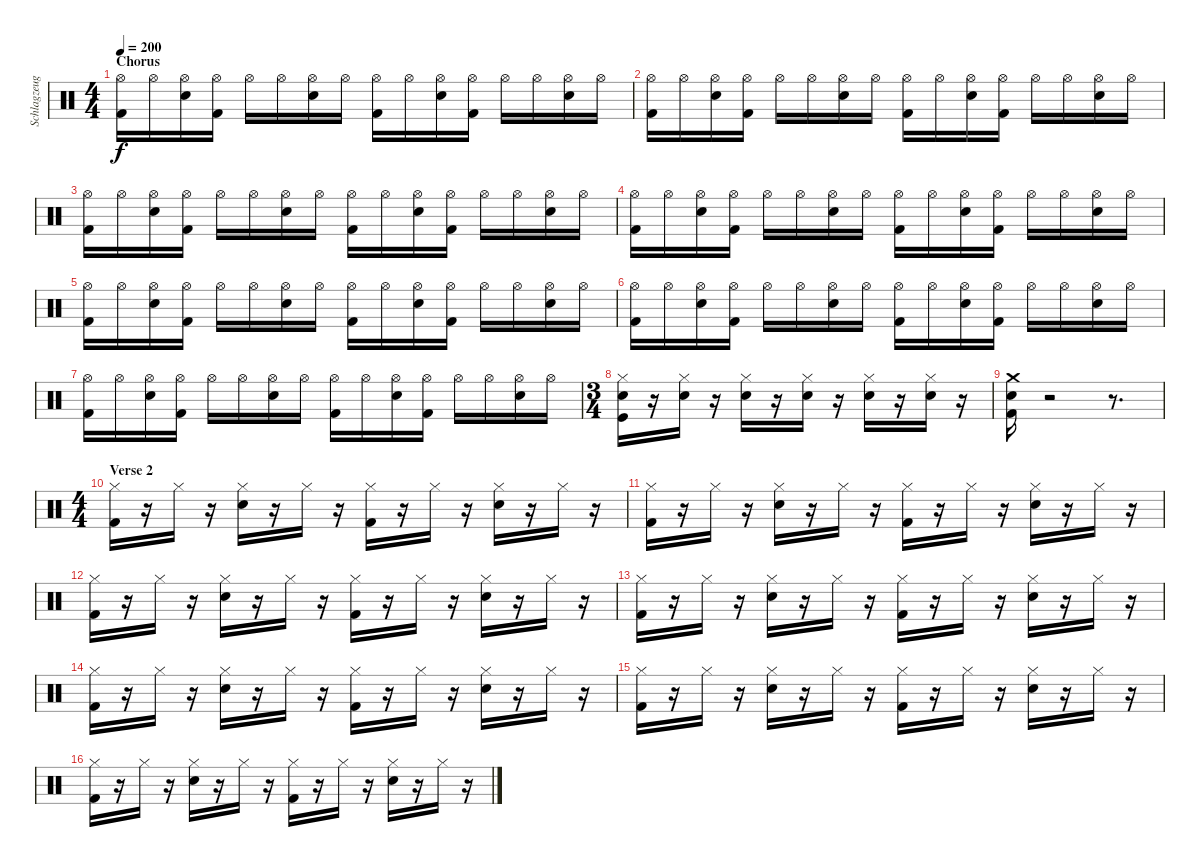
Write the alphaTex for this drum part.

\track ("Schlagzeug - Bela B." "Schlagzeug") {instrument percussion}
\staff {score}
\articulation defaults
\ts (4 4)
\section ("" "Chorus")
\tempo 200
\clef neutral
\ks c
("Kick (hit) 2" "Hi-Hat (open)").16{dy f} "Hi-Hat (open)".16 ("Electric Snare (hit)" "Hi-Hat (open)").16 ("Hi-Hat (open)" "Kick (hit) 2").16 "Hi-Hat (open)".16 "Hi-Hat (open)".16 ("Electric Snare (hit)" "Hi-Hat (open)").16 "Hi-Hat (open)".16 ("Kick (hit) 2" "Hi-Hat (open)").16 "Hi-Hat (open)".16 ("Electric Snare (hit)" "Hi-Hat (open)").16 ("Hi-Hat (open)" "Kick (hit) 2").16 "Hi-Hat (open)".16 "Hi-Hat (open)".16 ("Electric Snare (hit)" "Hi-Hat (open)").16 "Hi-Hat (open)".16 |
("Kick (hit) 2" "Hi-Hat (open)").16 "Hi-Hat (open)".16 ("Electric Snare (hit)" "Hi-Hat (open)").16 ("Hi-Hat (open)" "Kick (hit) 2").16 "Hi-Hat (open)".16 "Hi-Hat (open)".16 ("Electric Snare (hit)" "Hi-Hat (open)").16 "Hi-Hat (open)".16 ("Kick (hit) 2" "Hi-Hat (open)").16 "Hi-Hat (open)".16 ("Electric Snare (hit)" "Hi-Hat (open)").16 ("Hi-Hat (open)" "Kick (hit) 2").16 "Hi-Hat (open)".16 "Hi-Hat (open)".16 ("Electric Snare (hit)" "Hi-Hat (open)").16 "Hi-Hat (open)".16 |
("Kick (hit) 2" "Hi-Hat (open)").16 "Hi-Hat (open)".16 ("Electric Snare (hit)" "Hi-Hat (open)").16 ("Hi-Hat (open)" "Kick (hit) 2").16 "Hi-Hat (open)".16 "Hi-Hat (open)".16 ("Electric Snare (hit)" "Hi-Hat (open)").16 "Hi-Hat (open)".16 ("Kick (hit) 2" "Hi-Hat (open)").16 "Hi-Hat (open)".16 ("Electric Snare (hit)" "Hi-Hat (open)").16 ("Hi-Hat (open)" "Kick (hit) 2").16 "Hi-Hat (open)".16 "Hi-Hat (open)".16 ("Electric Snare (hit)" "Hi-Hat (open)").16 "Hi-Hat (open)".16 |
("Kick (hit) 2" "Hi-Hat (open)").16 "Hi-Hat (open)".16 ("Electric Snare (hit)" "Hi-Hat (open)").16 ("Hi-Hat (open)" "Kick (hit) 2").16 "Hi-Hat (open)".16 "Hi-Hat (open)".16 ("Electric Snare (hit)" "Hi-Hat (open)").16 "Hi-Hat (open)".16 ("Kick (hit) 2" "Hi-Hat (open)").16 "Hi-Hat (open)".16 ("Electric Snare (hit)" "Hi-Hat (open)").16 ("Hi-Hat (open)" "Kick (hit) 2").16 "Hi-Hat (open)".16 "Hi-Hat (open)".16 ("Electric Snare (hit)" "Hi-Hat (open)").16 "Hi-Hat (open)".16 |
("Kick (hit) 2" "Hi-Hat (open)").16 "Hi-Hat (open)".16 ("Electric Snare (hit)" "Hi-Hat (open)").16 ("Hi-Hat (open)" "Kick (hit) 2").16 "Hi-Hat (open)".16 "Hi-Hat (open)".16 ("Electric Snare (hit)" "Hi-Hat (open)").16 "Hi-Hat (open)".16 ("Kick (hit) 2" "Hi-Hat (open)").16 "Hi-Hat (open)".16 ("Electric Snare (hit)" "Hi-Hat (open)").16 ("Hi-Hat (open)" "Kick (hit) 2").16 "Hi-Hat (open)".16 "Hi-Hat (open)".16 ("Electric Snare (hit)" "Hi-Hat (open)").16 "Hi-Hat (open)".16 |
("Kick (hit) 2" "Hi-Hat (open)").16 "Hi-Hat (open)".16 ("Electric Snare (hit)" "Hi-Hat (open)").16 ("Hi-Hat (open)" "Kick (hit) 2").16 "Hi-Hat (open)".16 "Hi-Hat (open)".16 ("Electric Snare (hit)" "Hi-Hat (open)").16 "Hi-Hat (open)".16 ("Kick (hit) 2" "Hi-Hat (open)").16 "Hi-Hat (open)".16 ("Electric Snare (hit)" "Hi-Hat (open)").16 ("Hi-Hat (open)" "Kick (hit) 2").16 "Hi-Hat (open)".16 "Hi-Hat (open)".16 ("Electric Snare (hit)" "Hi-Hat (open)").16 "Hi-Hat (open)".16 |
("Kick (hit) 2" "Hi-Hat (open)").16 "Hi-Hat (open)".16 ("Electric Snare (hit)" "Hi-Hat (open)").16 ("Hi-Hat (open)" "Kick (hit) 2").16 "Hi-Hat (open)".16 "Hi-Hat (open)".16 ("Electric Snare (hit)" "Hi-Hat (open)").16 "Hi-Hat (open)".16 ("Kick (hit) 2" "Hi-Hat (open)").16 "Hi-Hat (open)".16 ("Electric Snare (hit)" "Hi-Hat (open)").16 ("Hi-Hat (open)" "Kick (hit) 2").16 "Hi-Hat (open)".16 "Hi-Hat (open)".16 ("Electric Snare (hit)" "Hi-Hat (open)").16 "Hi-Hat (open)".16 |
\ts (3 4)
("Kick (hit)" "Hi-Hat (closed)" "Electric Snare (hit)").16 r.16 ("Hi-Hat (closed)" "Electric Snare (hit)").16 r.16 ("Hi-Hat (closed)" "Electric Snare (hit)").16 r.16 ("Hi-Hat (closed)" "Electric Snare (hit)").16 r.16 ("Hi-Hat (closed)" "Electric Snare (hit)").16 r.16 ("Hi-Hat (closed)" "Electric Snare (hit)").16 r.16 |
("Kick (hit) 2" "Electric Snare (hit)" "Crash medium (hit)").16 r.2 r.8{d} |
\ts (4 4)
\section ("" "Verse 2")
("Kick (hit) 2" "Hi-Hat (closed)").16 r.16 "Hi-Hat (closed)".16 r.16 ("Hi-Hat (closed)" "Snare (hit) 2").16 r.16 "Hi-Hat (closed)".16 r.16 ("Kick (hit) 2" "Hi-Hat (closed)").16 r.16 "Hi-Hat (closed)".16 r.16 ("Hi-Hat (closed)" "Snare (hit) 2").16 r.16 "Hi-Hat (closed)".16 r.16 |
("Kick (hit) 2" "Hi-Hat (closed)").16 r.16 "Hi-Hat (closed)".16 r.16 ("Hi-Hat (closed)" "Snare (hit) 2").16 r.16 "Hi-Hat (closed)".16 r.16 ("Kick (hit) 2" "Hi-Hat (closed)").16 r.16 "Hi-Hat (closed)".16 r.16 ("Hi-Hat (closed)" "Snare (hit) 2").16 r.16 "Hi-Hat (closed)".16 r.16 |
("Kick (hit) 2" "Hi-Hat (closed)").16 r.16 "Hi-Hat (closed)".16 r.16 ("Hi-Hat (closed)" "Snare (hit) 2").16 r.16 "Hi-Hat (closed)".16 r.16 ("Kick (hit) 2" "Hi-Hat (closed)").16 r.16 "Hi-Hat (closed)".16 r.16 ("Hi-Hat (closed)" "Snare (hit) 2").16 r.16 "Hi-Hat (closed)".16 r.16 |
("Kick (hit) 2" "Hi-Hat (closed)").16 r.16 "Hi-Hat (closed)".16 r.16 ("Hi-Hat (closed)" "Snare (hit) 2").16 r.16 "Hi-Hat (closed)".16 r.16 ("Kick (hit) 2" "Hi-Hat (closed)").16 r.16 "Hi-Hat (closed)".16 r.16 ("Hi-Hat (closed)" "Snare (hit) 2").16 r.16 "Hi-Hat (closed)".16 r.16 |
("Kick (hit) 2" "Hi-Hat (closed)").16 r.16 "Hi-Hat (closed)".16 r.16 ("Hi-Hat (closed)" "Snare (hit) 2").16 r.16 "Hi-Hat (closed)".16 r.16 ("Kick (hit) 2" "Hi-Hat (closed)").16 r.16 "Hi-Hat (closed)".16 r.16 ("Hi-Hat (closed)" "Snare (hit) 2").16 r.16 "Hi-Hat (closed)".16 r.16 |
("Kick (hit) 2" "Hi-Hat (closed)").16 r.16 "Hi-Hat (closed)".16 r.16 ("Hi-Hat (closed)" "Snare (hit) 2").16 r.16 "Hi-Hat (closed)".16 r.16 ("Kick (hit) 2" "Hi-Hat (closed)").16 r.16 "Hi-Hat (closed)".16 r.16 ("Hi-Hat (closed)" "Snare (hit) 2").16 r.16 "Hi-Hat (closed)".16 r.16 |
("Kick (hit) 2" "Hi-Hat (closed)").16 r.16 "Hi-Hat (closed)".16 r.16 ("Hi-Hat (closed)" "Snare (hit) 2").16 r.16 "Hi-Hat (closed)".16 r.16 ("Kick (hit) 2" "Hi-Hat (closed)").16 r.16 "Hi-Hat (closed)".16 r.16 ("Hi-Hat (closed)" "Snare (hit) 2").16 r.16 "Hi-Hat (closed)".16 r.16
